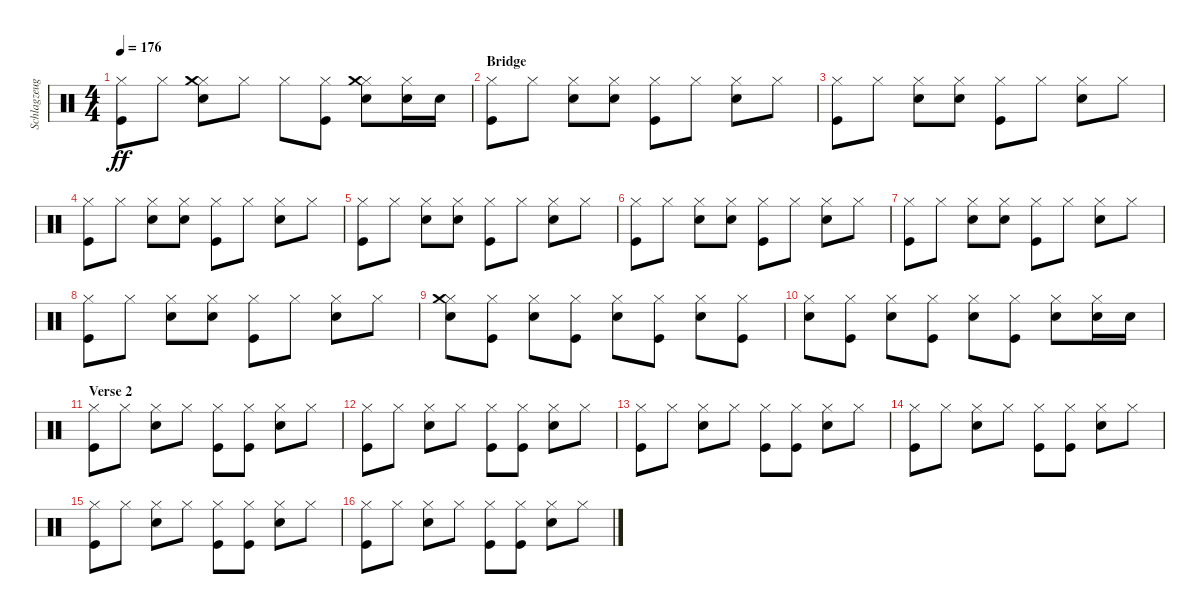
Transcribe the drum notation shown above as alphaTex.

\track ("Schlagzeug - Bela B." "Schlagzeug") {instrument percussion}
\staff {score}
\articulation defaults
\ts (4 4)
\tempo 176
\clef neutral
\ks c
("Kick (hit)" "Hi-Hat (closed)").8{dy ff} "Hi-Hat (closed)".8 ("Hi-Hat (closed)" "Electric Snare (hit)" "Crash medium (hit)").8 "Hi-Hat (closed)".8 "Hi-Hat (closed)".8 ("Hi-Hat (closed)" "Kick (hit)").8 ("Hi-Hat (closed)" "Electric Snare (hit)" "Crash medium (hit)").8 ("Hi-Hat (closed)" "Electric Snare (hit)").16 "Electric Snare (hit)".16 |
\section ("" "Bridge")
("Kick (hit)" "Hi-Hat (closed)").8 "Hi-Hat (closed)".8 ("Electric Snare (hit)" "Hi-Hat (closed)").8 ("Hi-Hat (closed)" "Electric Snare (hit)").8 ("Hi-Hat (closed)" "Kick (hit)").8 "Hi-Hat (closed)".8 ("Hi-Hat (closed)" "Electric Snare (hit)").8 "Hi-Hat (closed)".8 |
("Kick (hit)" "Hi-Hat (closed)").8 "Hi-Hat (closed)".8 ("Electric Snare (hit)" "Hi-Hat (closed)").8 ("Hi-Hat (closed)" "Electric Snare (hit)").8 ("Hi-Hat (closed)" "Kick (hit)").8 "Hi-Hat (closed)".8 ("Hi-Hat (closed)" "Electric Snare (hit)").8 "Hi-Hat (closed)".8 |
("Kick (hit)" "Hi-Hat (closed)").8 "Hi-Hat (closed)".8 ("Electric Snare (hit)" "Hi-Hat (closed)").8 ("Hi-Hat (closed)" "Electric Snare (hit)").8 ("Hi-Hat (closed)" "Kick (hit)").8 "Hi-Hat (closed)".8 ("Hi-Hat (closed)" "Electric Snare (hit)").8 "Hi-Hat (closed)".8 |
("Kick (hit)" "Hi-Hat (closed)").8 "Hi-Hat (closed)".8 ("Electric Snare (hit)" "Hi-Hat (closed)").8 ("Hi-Hat (closed)" "Electric Snare (hit)").8 ("Hi-Hat (closed)" "Kick (hit)").8 "Hi-Hat (closed)".8 ("Hi-Hat (closed)" "Electric Snare (hit)").8 "Hi-Hat (closed)".8 |
("Kick (hit)" "Hi-Hat (closed)").8 "Hi-Hat (closed)".8 ("Electric Snare (hit)" "Hi-Hat (closed)").8 ("Hi-Hat (closed)" "Electric Snare (hit)").8 ("Hi-Hat (closed)" "Kick (hit)").8 "Hi-Hat (closed)".8 ("Hi-Hat (closed)" "Electric Snare (hit)").8 "Hi-Hat (closed)".8 |
("Kick (hit)" "Hi-Hat (closed)").8 "Hi-Hat (closed)".8 ("Electric Snare (hit)" "Hi-Hat (closed)").8 ("Hi-Hat (closed)" "Electric Snare (hit)").8 ("Hi-Hat (closed)" "Kick (hit)").8 "Hi-Hat (closed)".8 ("Hi-Hat (closed)" "Electric Snare (hit)").8 "Hi-Hat (closed)".8 |
("Kick (hit)" "Hi-Hat (closed)").8 "Hi-Hat (closed)".8 ("Electric Snare (hit)" "Hi-Hat (closed)").8 ("Hi-Hat (closed)" "Electric Snare (hit)").8 ("Hi-Hat (closed)" "Kick (hit)").8 "Hi-Hat (closed)".8 ("Hi-Hat (closed)" "Electric Snare (hit)").8 "Hi-Hat (closed)".8 |
("Electric Snare (hit)" "Hi-Hat (closed)" "Crash medium (hit)").8 ("Kick (hit)" "Hi-Hat (closed)").8 ("Electric Snare (hit)" "Hi-Hat (closed)").8 ("Kick (hit)" "Hi-Hat (closed)").8 ("Electric Snare (hit)" "Hi-Hat (closed)").8 ("Kick (hit)" "Hi-Hat (closed)").8 ("Electric Snare (hit)" "Hi-Hat (closed)").8 ("Kick (hit)" "Hi-Hat (closed)").8 |
("Electric Snare (hit)" "Hi-Hat (closed)").8 ("Kick (hit)" "Hi-Hat (closed)").8 ("Electric Snare (hit)" "Hi-Hat (closed)").8 ("Kick (hit)" "Hi-Hat (closed)").8 ("Electric Snare (hit)" "Hi-Hat (closed)").8 ("Kick (hit)" "Hi-Hat (closed)").8 ("Electric Snare (hit)" "Hi-Hat (closed)").8 ("Electric Snare (hit)" "Hi-Hat (closed)").16 "Electric Snare (hit)".16 |
\section ("" "Verse 2")
("Kick (hit)" "Hi-Hat (closed)").8 "Hi-Hat (closed)".8 ("Hi-Hat (closed)" "Electric Snare (hit)").8 "Hi-Hat (closed)".8 ("Hi-Hat (closed)" "Kick (hit)").8 ("Hi-Hat (closed)" "Kick (hit)").8 ("Hi-Hat (closed)" "Electric Snare (hit)").8 "Hi-Hat (closed)".8 |
("Kick (hit)" "Hi-Hat (closed)").8 "Hi-Hat (closed)".8 ("Hi-Hat (closed)" "Electric Snare (hit)").8 "Hi-Hat (closed)".8 ("Hi-Hat (closed)" "Kick (hit)").8 ("Hi-Hat (closed)" "Kick (hit)").8 ("Hi-Hat (closed)" "Electric Snare (hit)").8 "Hi-Hat (closed)".8 |
("Kick (hit)" "Hi-Hat (closed)").8 "Hi-Hat (closed)".8 ("Hi-Hat (closed)" "Electric Snare (hit)").8 "Hi-Hat (closed)".8 ("Hi-Hat (closed)" "Kick (hit)").8 ("Hi-Hat (closed)" "Kick (hit)").8 ("Hi-Hat (closed)" "Electric Snare (hit)").8 "Hi-Hat (closed)".8 |
("Kick (hit)" "Hi-Hat (closed)").8 "Hi-Hat (closed)".8 ("Hi-Hat (closed)" "Electric Snare (hit)").8 "Hi-Hat (closed)".8 ("Hi-Hat (closed)" "Kick (hit)").8 ("Hi-Hat (closed)" "Kick (hit)").8 ("Hi-Hat (closed)" "Electric Snare (hit)").8 "Hi-Hat (closed)".8 |
("Kick (hit)" "Hi-Hat (closed)").8 "Hi-Hat (closed)".8 ("Hi-Hat (closed)" "Electric Snare (hit)").8 "Hi-Hat (closed)".8 ("Hi-Hat (closed)" "Kick (hit)").8 ("Hi-Hat (closed)" "Kick (hit)").8 ("Hi-Hat (closed)" "Electric Snare (hit)").8 "Hi-Hat (closed)".8 |
("Kick (hit)" "Hi-Hat (closed)").8 "Hi-Hat (closed)".8 ("Hi-Hat (closed)" "Electric Snare (hit)").8 "Hi-Hat (closed)".8 ("Hi-Hat (closed)" "Kick (hit)").8 ("Hi-Hat (closed)" "Kick (hit)").8 ("Hi-Hat (closed)" "Electric Snare (hit)").8 "Hi-Hat (closed)".8
